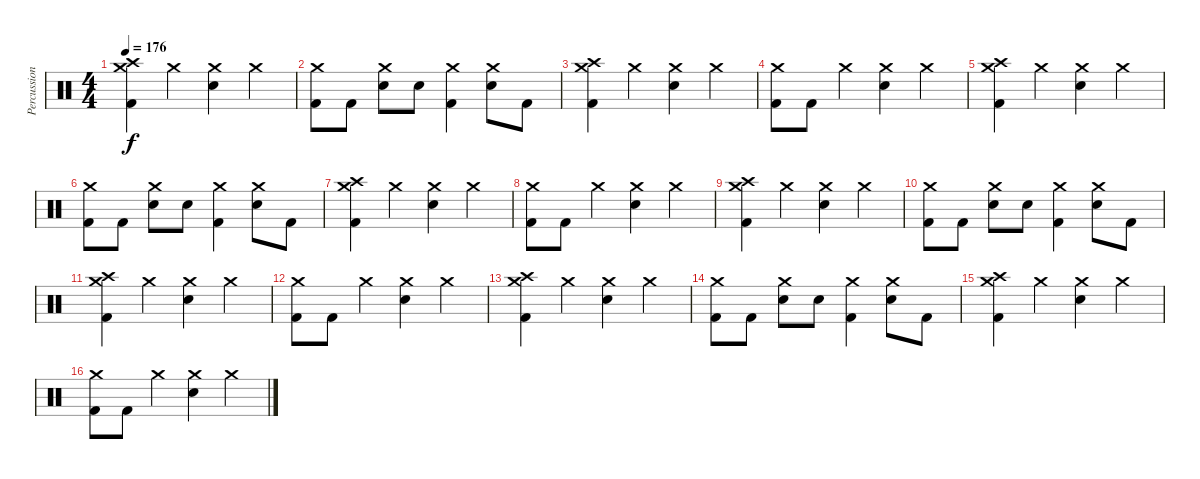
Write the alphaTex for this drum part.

\track ("Percussion" "Percussion") {instrument percussion}
\staff {score}
\articulation defaults
\ts (4 4)
\tempo 176
\clef neutral
\ks c
("Crash medium (hit)" "Crash high (hit)" "Kick (hit) 2").4{dy f} "Crash medium (hit)".4 ("Crash medium (hit)" "Snare (hit) 2").4 "Crash medium (hit)".4 |
("Crash medium (hit)" "Kick (hit) 2").8 "Kick (hit) 2".8 ("Crash medium (hit)" "Snare (hit) 2").8 "Snare (hit) 2".8 ("Crash medium (hit)" "Kick (hit) 2").4 ("Crash medium (hit)" "Snare (hit) 2").8 "Kick (hit) 2".8 |
("Crash medium (hit)" "Crash high (hit)" "Kick (hit) 2").4 "Crash medium (hit)".4 ("Crash medium (hit)" "Snare (hit) 2").4 "Crash medium (hit)".4 |
("Crash medium (hit)" "Kick (hit) 2").8 "Kick (hit) 2".8 "Crash medium (hit)".4 ("Crash medium (hit)" "Snare (hit) 2").4 "Crash medium (hit)".4 |
("Crash medium (hit)" "Crash high (hit)" "Kick (hit) 2").4 "Crash medium (hit)".4 ("Crash medium (hit)" "Snare (hit) 2").4 "Crash medium (hit)".4 |
("Crash medium (hit)" "Kick (hit) 2").8 "Kick (hit) 2".8 ("Crash medium (hit)" "Snare (hit) 2").8 "Snare (hit) 2".8 ("Crash medium (hit)" "Kick (hit) 2").4 ("Crash medium (hit)" "Snare (hit) 2").8 "Kick (hit) 2".8 |
("Crash medium (hit)" "Crash high (hit)" "Kick (hit) 2").4 "Crash medium (hit)".4 ("Crash medium (hit)" "Snare (hit) 2").4 "Crash medium (hit)".4 |
("Crash medium (hit)" "Kick (hit) 2").8 "Kick (hit) 2".8 "Crash medium (hit)".4 ("Crash medium (hit)" "Snare (hit) 2").4 "Crash medium (hit)".4 |
("Crash medium (hit)" "Crash high (hit)" "Kick (hit) 2").4 "Crash medium (hit)".4 ("Crash medium (hit)" "Snare (hit) 2").4 "Crash medium (hit)".4 |
("Crash medium (hit)" "Kick (hit) 2").8 "Kick (hit) 2".8 ("Crash medium (hit)" "Snare (hit) 2").8 "Snare (hit) 2".8 ("Crash medium (hit)" "Kick (hit) 2").4 ("Crash medium (hit)" "Snare (hit) 2").8 "Kick (hit) 2".8 |
("Crash medium (hit)" "Crash high (hit)" "Kick (hit) 2").4 "Crash medium (hit)".4 ("Crash medium (hit)" "Snare (hit) 2").4 "Crash medium (hit)".4 |
("Crash medium (hit)" "Kick (hit) 2").8 "Kick (hit) 2".8 "Crash medium (hit)".4 ("Crash medium (hit)" "Snare (hit) 2").4 "Crash medium (hit)".4 |
("Crash medium (hit)" "Crash high (hit)" "Kick (hit) 2").4 "Crash medium (hit)".4 ("Crash medium (hit)" "Snare (hit) 2").4 "Crash medium (hit)".4 |
("Crash medium (hit)" "Kick (hit) 2").8 "Kick (hit) 2".8 ("Crash medium (hit)" "Snare (hit) 2").8 "Snare (hit) 2".8 ("Crash medium (hit)" "Kick (hit) 2").4 ("Crash medium (hit)" "Snare (hit) 2").8 "Kick (hit) 2".8 |
("Crash medium (hit)" "Crash high (hit)" "Kick (hit) 2").4 "Crash medium (hit)".4 ("Crash medium (hit)" "Snare (hit) 2").4 "Crash medium (hit)".4 |
("Crash medium (hit)" "Kick (hit) 2").8 "Kick (hit) 2".8 "Crash medium (hit)".4 ("Crash medium (hit)" "Snare (hit) 2").4 "Crash medium (hit)".4
